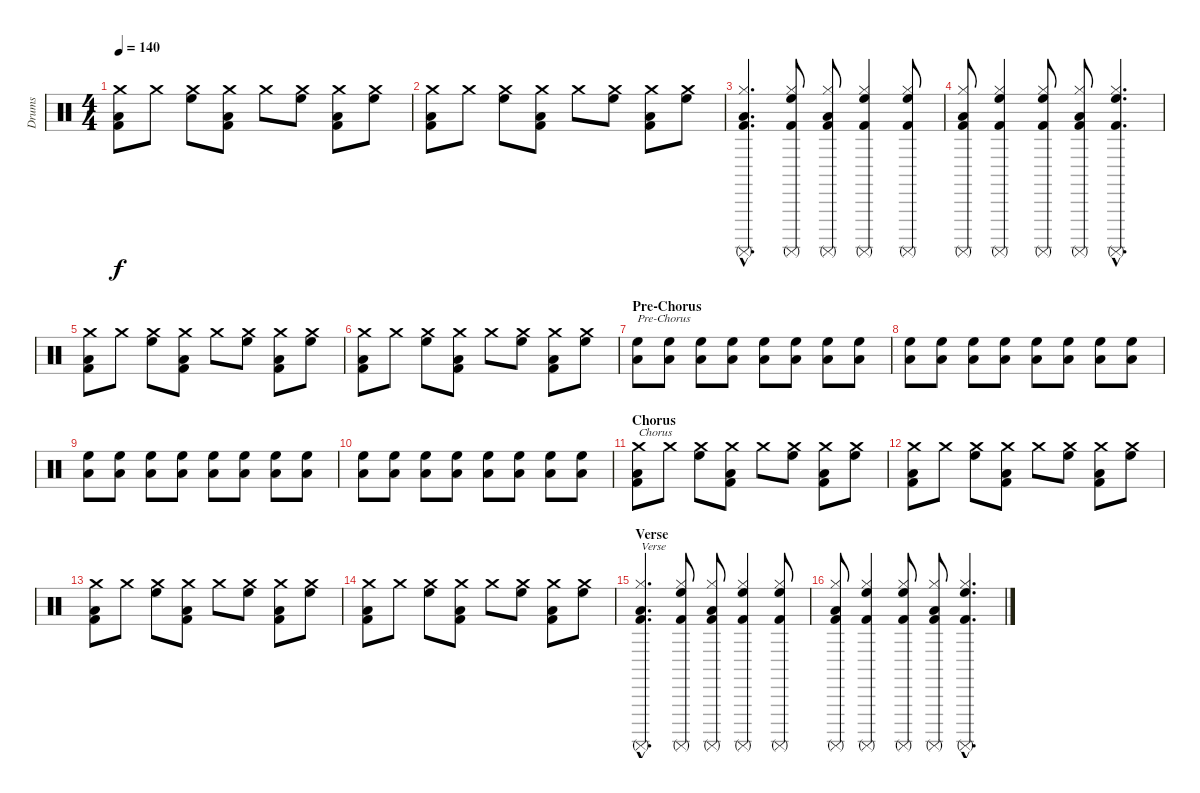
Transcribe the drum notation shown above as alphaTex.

\track ("Drums" "Drums") {instrument percussion}
\staff {score}
\articulation defaults
\ts (4 4)
\tempo 140
\clef neutral
\ks c
("Low Tom (hit)" "Crash medium (hit)" "Kick (hit) 2").8{dy f} "Crash medium (hit)".8 ("High Floor Tom (hit)" "Crash medium (hit)").8 ("Low Tom (hit)" "Crash medium (hit)" "Kick (hit) 2").8 "Crash medium (hit)".8 ("High Floor Tom (hit)" "Crash medium (hit)").8 ("Low Tom (hit)" "Crash medium (hit)" "Kick (hit) 2").8 ("High Floor Tom (hit)" "Crash medium (hit)").8 |
("Low Tom (hit)" "Crash medium (hit)" "Kick (hit) 2").8 "Crash medium (hit)".8 ("High Floor Tom (hit)" "Crash medium (hit)").8 ("Low Tom (hit)" "Crash medium (hit)" "Kick (hit) 2").8 "Crash medium (hit)".8 ("High Floor Tom (hit)" "Crash medium (hit)").8 ("Low Tom (hit)" "Crash medium (hit)" "Kick (hit) 2").8 ("High Floor Tom (hit)" "Crash medium (hit)").8 |
("Low Tom (hit)"{hac} "Hi-Hat (closed)"{hac} "Kick (hit) 2"{hac} "Surdo (mute)"{hac}).4{d} ("High Floor Tom (hit)" "Hi-Hat (closed)" "Kick (hit) 2" "Surdo (mute)").8 ("Low Tom (hit)" "Hi-Hat (closed)" "Kick (hit) 2" "Surdo (mute)").8 ("High Floor Tom (hit)" "Hi-Hat (closed)" "Kick (hit) 2" "Surdo (mute)").4 ("High Floor Tom (hit)" "Hi-Hat (closed)" "Kick (hit) 2" "Surdo (mute)").8 |
("Low Tom (hit)" "Hi-Hat (closed)" "Kick (hit) 2" "Surdo (mute)").8 ("High Floor Tom (hit)" "Hi-Hat (closed)" "Kick (hit) 2" "Surdo (mute)").4 ("High Floor Tom (hit)" "Hi-Hat (closed)" "Kick (hit) 2" "Surdo (mute)").8 ("Low Tom (hit)" "Hi-Hat (closed)" "Kick (hit) 2" "Surdo (mute)").8 ("High Floor Tom (hit)"{hac} "Hi-Hat (closed)"{hac} "Kick (hit) 2"{hac} "Surdo (mute)"{hac}).4{d} |
("Low Tom (hit)" "Crash medium (hit)" "Kick (hit) 2").8 "Crash medium (hit)".8 ("High Floor Tom (hit)" "Crash medium (hit)").8 ("Low Tom (hit)" "Crash medium (hit)" "Kick (hit) 2").8 "Crash medium (hit)".8 ("High Floor Tom (hit)" "Crash medium (hit)").8 ("Low Tom (hit)" "Crash medium (hit)" "Kick (hit) 2").8 ("High Floor Tom (hit)" "Crash medium (hit)").8 |
("Low Tom (hit)" "Crash medium (hit)" "Kick (hit) 2").8 "Crash medium (hit)".8 ("High Floor Tom (hit)" "Crash medium (hit)").8 ("Low Tom (hit)" "Crash medium (hit)" "Kick (hit) 2").8 "Crash medium (hit)".8 ("High Floor Tom (hit)" "Crash medium (hit)").8 ("Low Tom (hit)" "Crash medium (hit)" "Kick (hit) 2").8 ("High Floor Tom (hit)" "Crash medium (hit)").8 |
\section ("" "Pre-Chorus")
("Low Tom (hit)" "High Floor Tom (hit)").8{txt "Pre-Chorus"} ("Low Tom (hit)" "High Floor Tom (hit)").8 ("Low Tom (hit)" "High Floor Tom (hit)").8 ("Low Tom (hit)" "High Floor Tom (hit)").8 ("Low Tom (hit)" "High Floor Tom (hit)").8 ("Low Tom (hit)" "High Floor Tom (hit)").8 ("Low Tom (hit)" "High Floor Tom (hit)").8 ("Low Tom (hit)" "High Floor Tom (hit)").8 |
("Low Tom (hit)" "High Floor Tom (hit)").8 ("Low Tom (hit)" "High Floor Tom (hit)").8 ("Low Tom (hit)" "High Floor Tom (hit)").8 ("Low Tom (hit)" "High Floor Tom (hit)").8 ("Low Tom (hit)" "High Floor Tom (hit)").8 ("Low Tom (hit)" "High Floor Tom (hit)").8 ("Low Tom (hit)" "High Floor Tom (hit)").8 ("Low Tom (hit)" "High Floor Tom (hit)").8 |
("Low Tom (hit)" "High Floor Tom (hit)").8 ("Low Tom (hit)" "High Floor Tom (hit)").8 ("Low Tom (hit)" "High Floor Tom (hit)").8 ("Low Tom (hit)" "High Floor Tom (hit)").8 ("Low Tom (hit)" "High Floor Tom (hit)").8 ("Low Tom (hit)" "High Floor Tom (hit)").8 ("Low Tom (hit)" "High Floor Tom (hit)").8 ("Low Tom (hit)" "High Floor Tom (hit)").8 |
("Low Tom (hit)" "High Floor Tom (hit)").8 ("Low Tom (hit)" "High Floor Tom (hit)").8 ("Low Tom (hit)" "High Floor Tom (hit)").8 ("Low Tom (hit)" "High Floor Tom (hit)").8 ("Low Tom (hit)" "High Floor Tom (hit)").8 ("Low Tom (hit)" "High Floor Tom (hit)").8 ("Low Tom (hit)" "High Floor Tom (hit)").8 ("Low Tom (hit)" "High Floor Tom (hit)").8 |
\section ("" "Chorus")
("Low Tom (hit)" "Crash medium (hit)" "Kick (hit) 2").8{txt "Chorus"} "Crash medium (hit)".8 ("High Floor Tom (hit)" "Crash medium (hit)").8 ("Low Tom (hit)" "Crash medium (hit)" "Kick (hit) 2").8 "Crash medium (hit)".8 ("High Floor Tom (hit)" "Crash medium (hit)").8 ("Low Tom (hit)" "Crash medium (hit)" "Kick (hit) 2").8 ("High Floor Tom (hit)" "Crash medium (hit)").8 |
("Low Tom (hit)" "Crash medium (hit)" "Kick (hit) 2").8 "Crash medium (hit)".8 ("High Floor Tom (hit)" "Crash medium (hit)").8 ("Low Tom (hit)" "Crash medium (hit)" "Kick (hit) 2").8 "Crash medium (hit)".8 ("High Floor Tom (hit)" "Crash medium (hit)").8 ("Low Tom (hit)" "Crash medium (hit)" "Kick (hit) 2").8 ("High Floor Tom (hit)" "Crash medium (hit)").8 |
("Low Tom (hit)" "Crash medium (hit)" "Kick (hit) 2").8 "Crash medium (hit)".8 ("High Floor Tom (hit)" "Crash medium (hit)").8 ("Low Tom (hit)" "Crash medium (hit)" "Kick (hit) 2").8 "Crash medium (hit)".8 ("High Floor Tom (hit)" "Crash medium (hit)").8 ("Low Tom (hit)" "Crash medium (hit)" "Kick (hit) 2").8 ("High Floor Tom (hit)" "Crash medium (hit)").8 |
("Low Tom (hit)" "Crash medium (hit)" "Kick (hit) 2").8 "Crash medium (hit)".8 ("High Floor Tom (hit)" "Crash medium (hit)").8 ("Low Tom (hit)" "Crash medium (hit)" "Kick (hit) 2").8 "Crash medium (hit)".8 ("High Floor Tom (hit)" "Crash medium (hit)").8 ("Low Tom (hit)" "Crash medium (hit)" "Kick (hit) 2").8 ("High Floor Tom (hit)" "Crash medium (hit)").8 |
\section ("" "Verse")
("Low Tom (hit)"{hac} "Hi-Hat (closed)"{hac} "Kick (hit) 2"{hac} "Surdo (mute)"{hac}).4{d txt "Verse"} ("High Floor Tom (hit)" "Hi-Hat (closed)" "Kick (hit) 2" "Surdo (mute)").8 ("Low Tom (hit)" "Hi-Hat (closed)" "Kick (hit) 2" "Surdo (mute)").8 ("High Floor Tom (hit)" "Hi-Hat (closed)" "Kick (hit) 2" "Surdo (mute)").4 ("High Floor Tom (hit)" "Hi-Hat (closed)" "Kick (hit) 2" "Surdo (mute)").8 |
("Low Tom (hit)" "Hi-Hat (closed)" "Kick (hit) 2" "Surdo (mute)").8 ("High Floor Tom (hit)" "Hi-Hat (closed)" "Kick (hit) 2" "Surdo (mute)").4 ("High Floor Tom (hit)" "Hi-Hat (closed)" "Kick (hit) 2" "Surdo (mute)").8 ("Low Tom (hit)" "Hi-Hat (closed)" "Kick (hit) 2" "Surdo (mute)").8 ("High Floor Tom (hit)"{hac} "Hi-Hat (closed)"{hac} "Kick (hit) 2"{hac} "Surdo (mute)"{hac}).4{d}
